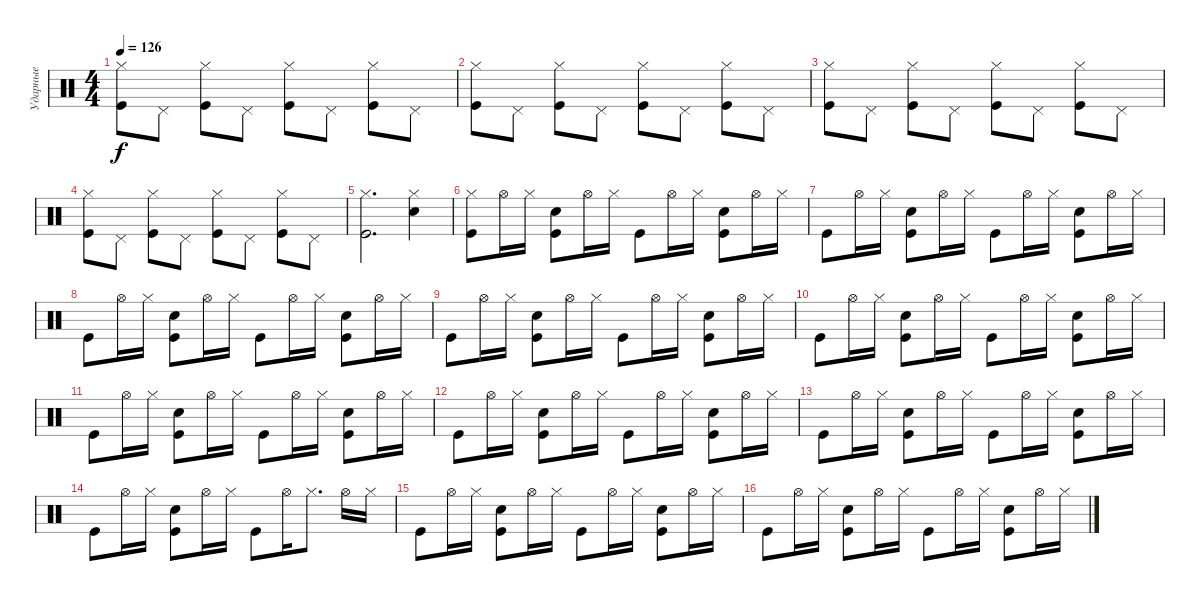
\track ("Ударные" "Ударные") {instrument percussion}
\staff {score}
\articulation defaults
\ts (4 4)
\tempo 126
\clef neutral
\ks c
("Hi-Hat (closed)" "Kick (hit)").8{dy f} "Pedal Hi-Hat (hit)".8 ("Hi-Hat (closed)" "Kick (hit)").8 "Pedal Hi-Hat (hit)".8 ("Hi-Hat (closed)" "Kick (hit)").8 "Pedal Hi-Hat (hit)".8 ("Hi-Hat (closed)" "Kick (hit)").8 "Pedal Hi-Hat (hit)".8 |
("Hi-Hat (closed)" "Kick (hit)").8 "Pedal Hi-Hat (hit)".8 ("Hi-Hat (closed)" "Kick (hit)").8 "Pedal Hi-Hat (hit)".8 ("Hi-Hat (closed)" "Kick (hit)").8 "Pedal Hi-Hat (hit)".8 ("Hi-Hat (closed)" "Kick (hit)").8 "Pedal Hi-Hat (hit)".8 |
("Hi-Hat (closed)" "Kick (hit)").8 "Pedal Hi-Hat (hit)".8 ("Hi-Hat (closed)" "Kick (hit)").8 "Pedal Hi-Hat (hit)".8 ("Hi-Hat (closed)" "Kick (hit)").8 "Pedal Hi-Hat (hit)".8 ("Hi-Hat (closed)" "Kick (hit)").8 "Pedal Hi-Hat (hit)".8 |
("Hi-Hat (closed)" "Kick (hit)").8 "Pedal Hi-Hat (hit)".8 ("Hi-Hat (closed)" "Kick (hit)").8 "Pedal Hi-Hat (hit)".8 ("Hi-Hat (closed)" "Kick (hit)").8 "Pedal Hi-Hat (hit)".8 ("Hi-Hat (closed)" "Kick (hit)").8 "Pedal Hi-Hat (hit)".8 |
("Hi-Hat (closed)" "Kick (hit)").2{d} ("Snare (hit) 2" "Hi-Hat (closed)").4 |
("Hi-Hat (closed)" "Kick (hit)").8 "Hi-Hat (open)".16 "Hi-Hat (closed)".16 ("Kick (hit)" "Snare (hit) 2").8 "Hi-Hat (open)".16 "Hi-Hat (closed)".16 "Kick (hit)".8 "Hi-Hat (open)".16 "Hi-Hat (closed)".16 ("Kick (hit)" "Snare (hit) 2").8 "Hi-Hat (open)".16 "Hi-Hat (closed)".16 |
"Kick (hit)".8 "Hi-Hat (open)".16 "Hi-Hat (closed)".16 ("Kick (hit)" "Snare (hit) 2").8 "Hi-Hat (open)".16 "Hi-Hat (closed)".16 "Kick (hit)".8 "Hi-Hat (open)".16 "Hi-Hat (closed)".16 ("Kick (hit)" "Snare (hit) 2").8 "Hi-Hat (open)".16 "Hi-Hat (closed)".16 |
"Kick (hit)".8 "Hi-Hat (open)".16 "Hi-Hat (closed)".16 ("Kick (hit)" "Snare (hit) 2").8 "Hi-Hat (open)".16 "Hi-Hat (closed)".16 "Kick (hit)".8 "Hi-Hat (open)".16 "Hi-Hat (closed)".16 ("Kick (hit)" "Snare (hit) 2").8 "Hi-Hat (open)".16 "Hi-Hat (closed)".16 |
"Kick (hit)".8 "Hi-Hat (open)".16 "Hi-Hat (closed)".16 ("Kick (hit)" "Snare (hit) 2").8 "Hi-Hat (open)".16 "Hi-Hat (closed)".16 "Kick (hit)".8 "Hi-Hat (open)".16 "Hi-Hat (closed)".16 ("Kick (hit)" "Snare (hit) 2").8 "Hi-Hat (open)".16 "Hi-Hat (closed)".16 |
"Kick (hit)".8 "Hi-Hat (open)".16 "Hi-Hat (closed)".16 ("Kick (hit)" "Snare (hit) 2").8 "Hi-Hat (open)".16 "Hi-Hat (closed)".16 "Kick (hit)".8 "Hi-Hat (open)".16 "Hi-Hat (closed)".16 ("Kick (hit)" "Snare (hit) 2").8 "Hi-Hat (open)".16 "Hi-Hat (closed)".16 |
"Kick (hit)".8 "Hi-Hat (open)".16 "Hi-Hat (closed)".16 ("Kick (hit)" "Snare (hit) 2").8 "Hi-Hat (open)".16 "Hi-Hat (closed)".16 "Kick (hit)".8 "Hi-Hat (open)".16 "Hi-Hat (closed)".16 ("Kick (hit)" "Snare (hit) 2").8 "Hi-Hat (open)".16 "Hi-Hat (closed)".16 |
"Kick (hit)".8 "Hi-Hat (open)".16 "Hi-Hat (closed)".16 ("Kick (hit)" "Snare (hit) 2").8 "Hi-Hat (open)".16 "Hi-Hat (closed)".16 "Kick (hit)".8 "Hi-Hat (open)".16 "Hi-Hat (closed)".16 ("Kick (hit)" "Snare (hit) 2").8 "Hi-Hat (open)".16 "Hi-Hat (closed)".16 |
"Kick (hit)".8 "Hi-Hat (open)".16 "Hi-Hat (closed)".16 ("Kick (hit)" "Snare (hit) 2").8 "Hi-Hat (open)".16 "Hi-Hat (closed)".16 "Kick (hit)".8 "Hi-Hat (open)".16 "Hi-Hat (closed)".16 ("Kick (hit)" "Snare (hit) 2").8 "Hi-Hat (open)".16 "Hi-Hat (closed)".16 |
"Kick (hit)".8 "Hi-Hat (open)".16 "Hi-Hat (closed)".16 ("Kick (hit)" "Snare (hit) 2").8 "Hi-Hat (open)".16 "Hi-Hat (closed)".16 "Kick (hit)".8 "Hi-Hat (open)".16 "Hi-Hat (closed)".8{d} "Hi-Hat (open)".16 "Hi-Hat (closed)".16 |
"Kick (hit)".8 "Hi-Hat (open)".16 "Hi-Hat (closed)".16 ("Kick (hit)" "Snare (hit) 2").8 "Hi-Hat (open)".16 "Hi-Hat (closed)".16 "Kick (hit)".8 "Hi-Hat (open)".16 "Hi-Hat (closed)".16 ("Kick (hit)" "Snare (hit) 2").8 "Hi-Hat (open)".16 "Hi-Hat (closed)".16 |
"Kick (hit)".8 "Hi-Hat (open)".16 "Hi-Hat (closed)".16 ("Kick (hit)" "Snare (hit) 2").8 "Hi-Hat (open)".16 "Hi-Hat (closed)".16 "Kick (hit)".8 "Hi-Hat (open)".16 "Hi-Hat (closed)".16 ("Kick (hit)" "Snare (hit) 2").8 "Hi-Hat (open)".16 "Hi-Hat (closed)".16
